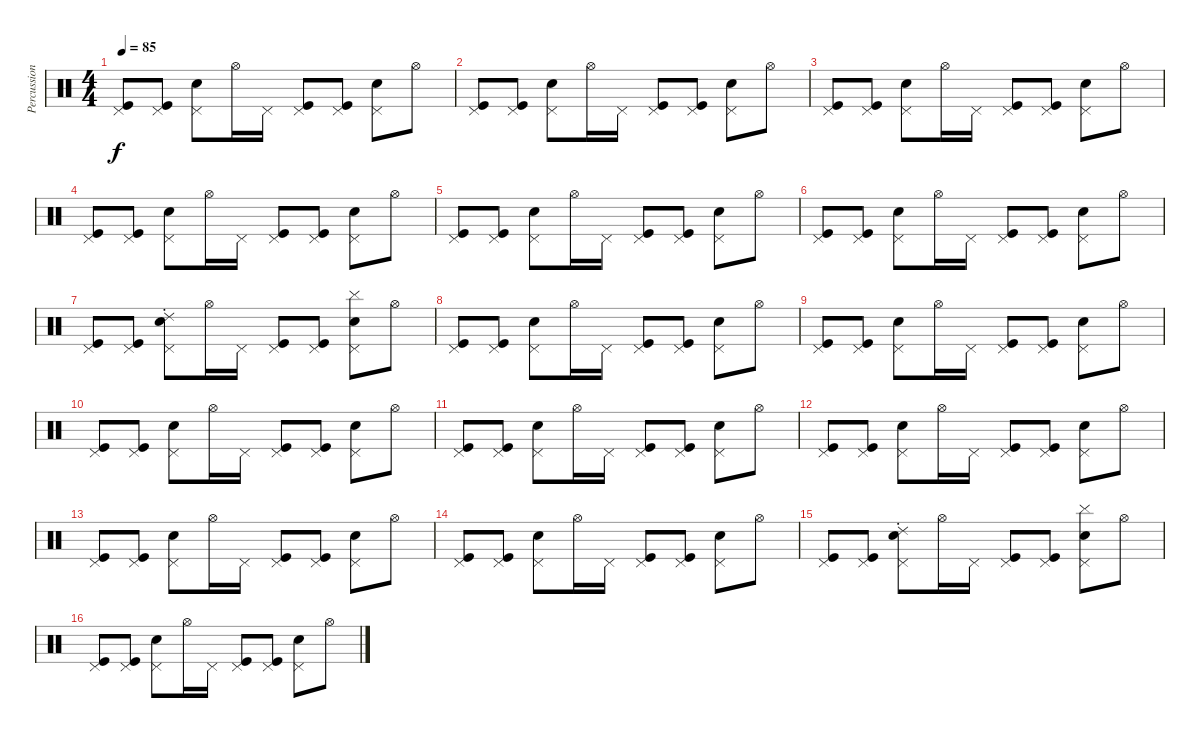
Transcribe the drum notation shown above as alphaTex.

\track ("Percussions" "Percussion") {instrument percussion}
\staff {score}
\articulation defaults
\ts (4 4)
\tempo 85
\clef neutral
\ks c
("Pedal Hi-Hat (hit)" "Kick (hit)").8{dy f volume 13} ("Pedal Hi-Hat (hit)" "Kick (hit)").8 ("Pedal Hi-Hat (hit)" "Electric Snare (hit)").8 "Hi-Hat (open)".16 "Pedal Hi-Hat (hit)".16 ("Pedal Hi-Hat (hit)" "Kick (hit)").8 ("Pedal Hi-Hat (hit)" "Kick (hit)").8 ("Pedal Hi-Hat (hit)" "Electric Snare (hit)").8 "Hi-Hat (open)".8 |
("Pedal Hi-Hat (hit)" "Kick (hit)").8 ("Pedal Hi-Hat (hit)" "Kick (hit)").8 ("Pedal Hi-Hat (hit)" "Electric Snare (hit)").8 "Hi-Hat (open)".16 "Pedal Hi-Hat (hit)".16 ("Pedal Hi-Hat (hit)" "Kick (hit)").8 ("Pedal Hi-Hat (hit)" "Kick (hit)").8 ("Pedal Hi-Hat (hit)" "Electric Snare (hit)").8 "Hi-Hat (open)".8 |
("Pedal Hi-Hat (hit)" "Kick (hit)").8{volume 13} ("Pedal Hi-Hat (hit)" "Kick (hit)").8 ("Pedal Hi-Hat (hit)" "Electric Snare (hit)").8 "Hi-Hat (open)".16 "Pedal Hi-Hat (hit)".16 ("Pedal Hi-Hat (hit)" "Kick (hit)").8 ("Pedal Hi-Hat (hit)" "Kick (hit)").8 ("Pedal Hi-Hat (hit)" "Electric Snare (hit)").8 "Hi-Hat (open)".8 |
("Pedal Hi-Hat (hit)" "Kick (hit)").8 ("Pedal Hi-Hat (hit)" "Kick (hit)").8 ("Pedal Hi-Hat (hit)" "Electric Snare (hit)").8 "Hi-Hat (open)".16 "Pedal Hi-Hat (hit)".16 ("Pedal Hi-Hat (hit)" "Kick (hit)").8 ("Pedal Hi-Hat (hit)" "Kick (hit)").8 ("Pedal Hi-Hat (hit)" "Electric Snare (hit)").8 "Hi-Hat (open)".8 |
("Pedal Hi-Hat (hit)" "Kick (hit)").8{volume 13} ("Pedal Hi-Hat (hit)" "Kick (hit)").8 ("Pedal Hi-Hat (hit)" "Electric Snare (hit)").8 "Hi-Hat (open)".16 "Pedal Hi-Hat (hit)".16 ("Pedal Hi-Hat (hit)" "Kick (hit)").8 ("Pedal Hi-Hat (hit)" "Kick (hit)").8 ("Pedal Hi-Hat (hit)" "Electric Snare (hit)").8 "Hi-Hat (open)".8 |
("Pedal Hi-Hat (hit)" "Kick (hit)").8 ("Pedal Hi-Hat (hit)" "Kick (hit)").8 ("Pedal Hi-Hat (hit)" "Electric Snare (hit)").8 "Hi-Hat (open)".16 "Pedal Hi-Hat (hit)".16 ("Pedal Hi-Hat (hit)" "Kick (hit)").8 ("Pedal Hi-Hat (hit)" "Kick (hit)").8 ("Pedal Hi-Hat (hit)" "Electric Snare (hit)").8 "Hi-Hat (open)".8 |
("Pedal Hi-Hat (hit)" "Kick (hit)").8{volume 16} ("Pedal Hi-Hat (hit)" "Kick (hit)").8 ("Pedal Hi-Hat (hit)" "Ride (choke) 2" "Electric Snare (hit)").8 "Hi-Hat (open)".16 "Pedal Hi-Hat (hit)".16 ("Pedal Hi-Hat (hit)" "Kick (hit)").8 ("Pedal Hi-Hat (hit)" "Kick (hit)").8 ("Pedal Hi-Hat (hit)" "Cymbal (hit)" "Electric Snare (hit)").8 "Hi-Hat (open)".8 |
("Pedal Hi-Hat (hit)" "Kick (hit)").8 ("Pedal Hi-Hat (hit)" "Kick (hit)").8 ("Pedal Hi-Hat (hit)" "Electric Snare (hit)").8 "Hi-Hat (open)".16 "Pedal Hi-Hat (hit)".16 ("Pedal Hi-Hat (hit)" "Kick (hit)").8 ("Pedal Hi-Hat (hit)" "Kick (hit)").8 ("Pedal Hi-Hat (hit)" "Electric Snare (hit)").8 "Hi-Hat (open)".8 |
("Pedal Hi-Hat (hit)" "Kick (hit)").8 ("Pedal Hi-Hat (hit)" "Kick (hit)").8 ("Pedal Hi-Hat (hit)" "Electric Snare (hit)").8 "Hi-Hat (open)".16 "Pedal Hi-Hat (hit)".16 ("Pedal Hi-Hat (hit)" "Kick (hit)").8 ("Pedal Hi-Hat (hit)" "Kick (hit)").8 ("Pedal Hi-Hat (hit)" "Electric Snare (hit)").8 "Hi-Hat (open)".8 |
("Pedal Hi-Hat (hit)" "Kick (hit)").8 ("Pedal Hi-Hat (hit)" "Kick (hit)").8 ("Pedal Hi-Hat (hit)" "Electric Snare (hit)").8 "Hi-Hat (open)".16 "Pedal Hi-Hat (hit)".16 ("Pedal Hi-Hat (hit)" "Kick (hit)").8 ("Pedal Hi-Hat (hit)" "Kick (hit)").8 ("Pedal Hi-Hat (hit)" "Electric Snare (hit)").8 "Hi-Hat (open)".8 |
("Pedal Hi-Hat (hit)" "Kick (hit)").8{volume 12} ("Pedal Hi-Hat (hit)" "Kick (hit)").8 ("Pedal Hi-Hat (hit)" "Electric Snare (hit)").8 "Hi-Hat (open)".16 "Pedal Hi-Hat (hit)".16 ("Pedal Hi-Hat (hit)" "Kick (hit)").8 ("Pedal Hi-Hat (hit)" "Kick (hit)").8 ("Pedal Hi-Hat (hit)" "Electric Snare (hit)").8 "Hi-Hat (open)".8 |
("Pedal Hi-Hat (hit)" "Kick (hit)").8 ("Pedal Hi-Hat (hit)" "Kick (hit)").8 ("Pedal Hi-Hat (hit)" "Electric Snare (hit)").8 "Hi-Hat (open)".16 "Pedal Hi-Hat (hit)".16 ("Pedal Hi-Hat (hit)" "Kick (hit)").8 ("Pedal Hi-Hat (hit)" "Kick (hit)").8 ("Pedal Hi-Hat (hit)" "Electric Snare (hit)").8 "Hi-Hat (open)".8 |
("Pedal Hi-Hat (hit)" "Kick (hit)").8 ("Pedal Hi-Hat (hit)" "Kick (hit)").8 ("Pedal Hi-Hat (hit)" "Electric Snare (hit)").8 "Hi-Hat (open)".16 "Pedal Hi-Hat (hit)".16 ("Pedal Hi-Hat (hit)" "Kick (hit)").8 ("Pedal Hi-Hat (hit)" "Kick (hit)").8 ("Pedal Hi-Hat (hit)" "Electric Snare (hit)").8 "Hi-Hat (open)".8 |
("Pedal Hi-Hat (hit)" "Kick (hit)").8 ("Pedal Hi-Hat (hit)" "Kick (hit)").8 ("Pedal Hi-Hat (hit)" "Electric Snare (hit)").8 "Hi-Hat (open)".16 "Pedal Hi-Hat (hit)".16 ("Pedal Hi-Hat (hit)" "Kick (hit)").8 ("Pedal Hi-Hat (hit)" "Kick (hit)").8 ("Pedal Hi-Hat (hit)" "Electric Snare (hit)").8 "Hi-Hat (open)".8 |
("Pedal Hi-Hat (hit)" "Kick (hit)").8{volume 16} ("Pedal Hi-Hat (hit)" "Kick (hit)").8 ("Pedal Hi-Hat (hit)" "Ride (choke) 2" "Electric Snare (hit)").8 "Hi-Hat (open)".16 "Pedal Hi-Hat (hit)".16 ("Pedal Hi-Hat (hit)" "Kick (hit)").8 ("Pedal Hi-Hat (hit)" "Kick (hit)").8 ("Pedal Hi-Hat (hit)" "Cymbal (hit)" "Electric Snare (hit)").8 "Hi-Hat (open)".8 |
("Pedal Hi-Hat (hit)" "Kick (hit)").8 ("Pedal Hi-Hat (hit)" "Kick (hit)").8 ("Pedal Hi-Hat (hit)" "Electric Snare (hit)").8 "Hi-Hat (open)".16 "Pedal Hi-Hat (hit)".16 ("Pedal Hi-Hat (hit)" "Kick (hit)").8 ("Pedal Hi-Hat (hit)" "Kick (hit)").8 ("Pedal Hi-Hat (hit)" "Electric Snare (hit)").8 "Hi-Hat (open)".8
